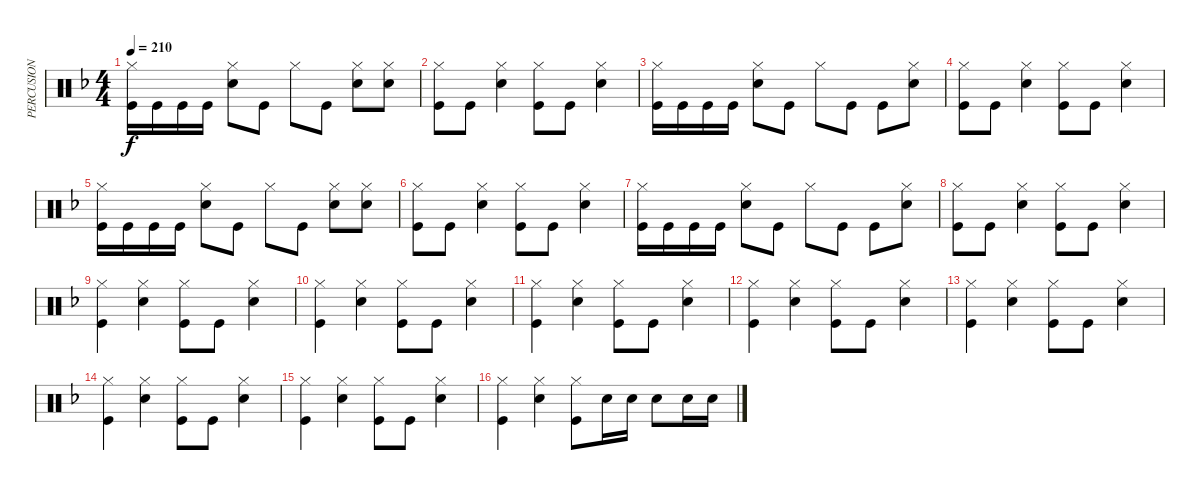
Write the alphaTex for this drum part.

\track ("PERCUSION" "PERCUSION") {instrument percussion}
\staff {score}
\articulation defaults
\ts (4 4)
\tempo 210
\clef neutral
\ks f
("Hi-Hat (closed)" "Kick (hit)").16{dy f} "Kick (hit)".16 "Kick (hit)".16 "Kick (hit)".16 ("Hi-Hat (closed)" "Snare (hit) 2").8 "Kick (hit)".8 "Hi-Hat (closed)".8 "Kick (hit)".8 ("Hi-Hat (closed)" "Snare (hit) 2").8 ("Hi-Hat (closed)" "Snare (hit) 2").8 |
("Hi-Hat (closed)" "Kick (hit)").8 "Kick (hit)".8 ("Hi-Hat (closed)" "Snare (hit) 2").4 ("Hi-Hat (closed)" "Kick (hit)").8 "Kick (hit)".8 ("Hi-Hat (closed)" "Snare (hit) 2").4 |
("Hi-Hat (closed)" "Kick (hit)").16 "Kick (hit)".16 "Kick (hit)".16 "Kick (hit)".16 ("Hi-Hat (closed)" "Snare (hit) 2").8 "Kick (hit)".8 "Hi-Hat (closed)".8 "Kick (hit)".8 "Kick (hit)".8 ("Hi-Hat (closed)" "Snare (hit) 2").8 |
("Hi-Hat (closed)" "Kick (hit)").8 "Kick (hit)".8 ("Hi-Hat (closed)" "Snare (hit) 2").4 ("Hi-Hat (closed)" "Kick (hit)").8 "Kick (hit)".8 ("Hi-Hat (closed)" "Snare (hit) 2").4 |
("Hi-Hat (closed)" "Kick (hit)").16 "Kick (hit)".16 "Kick (hit)".16 "Kick (hit)".16 ("Hi-Hat (closed)" "Snare (hit) 2").8 "Kick (hit)".8 "Hi-Hat (closed)".8 "Kick (hit)".8 ("Hi-Hat (closed)" "Snare (hit) 2").8 ("Hi-Hat (closed)" "Snare (hit) 2").8 |
("Hi-Hat (closed)" "Kick (hit)").8 "Kick (hit)".8 ("Hi-Hat (closed)" "Snare (hit) 2").4 ("Hi-Hat (closed)" "Kick (hit)").8 "Kick (hit)".8 ("Hi-Hat (closed)" "Snare (hit) 2").4 |
("Hi-Hat (closed)" "Kick (hit)").16 "Kick (hit)".16 "Kick (hit)".16 "Kick (hit)".16 ("Hi-Hat (closed)" "Snare (hit) 2").8 "Kick (hit)".8 "Hi-Hat (closed)".8 "Kick (hit)".8 "Kick (hit)".8 ("Hi-Hat (closed)" "Snare (hit) 2").8 |
("Hi-Hat (closed)" "Kick (hit)").8 "Kick (hit)".8 ("Hi-Hat (closed)" "Snare (hit) 2").4 ("Hi-Hat (closed)" "Kick (hit)").8 "Kick (hit)".8 ("Hi-Hat (closed)" "Snare (hit) 2").4 |
("Hi-Hat (closed)" "Kick (hit)").4 ("Hi-Hat (closed)" "Snare (hit) 2").4 ("Hi-Hat (closed)" "Kick (hit)").8 "Kick (hit)".8 ("Hi-Hat (closed)" "Snare (hit) 2").4 |
("Hi-Hat (closed)" "Kick (hit)").4 ("Hi-Hat (closed)" "Snare (hit) 2").4 ("Hi-Hat (closed)" "Kick (hit)").8 "Kick (hit)".8 ("Hi-Hat (closed)" "Snare (hit) 2").4 |
("Hi-Hat (closed)" "Kick (hit)").4 ("Hi-Hat (closed)" "Snare (hit) 2").4 ("Hi-Hat (closed)" "Kick (hit)").8 "Kick (hit)".8 ("Hi-Hat (closed)" "Snare (hit) 2").4 |
("Hi-Hat (closed)" "Kick (hit)").4 ("Hi-Hat (closed)" "Snare (hit) 2").4 ("Hi-Hat (closed)" "Kick (hit)").8 "Kick (hit)".8 ("Hi-Hat (closed)" "Snare (hit) 2").4 |
("Hi-Hat (closed)" "Kick (hit)").4 ("Hi-Hat (closed)" "Snare (hit) 2").4 ("Hi-Hat (closed)" "Kick (hit)").8 "Kick (hit)".8 ("Hi-Hat (closed)" "Snare (hit) 2").4 |
("Hi-Hat (closed)" "Kick (hit)").4 ("Hi-Hat (closed)" "Snare (hit) 2").4 ("Hi-Hat (closed)" "Kick (hit)").8 "Kick (hit)".8 ("Hi-Hat (closed)" "Snare (hit) 2").4 |
("Hi-Hat (closed)" "Kick (hit)").4 ("Hi-Hat (closed)" "Snare (hit) 2").4 ("Hi-Hat (closed)" "Kick (hit)").8 "Kick (hit)".8 ("Hi-Hat (closed)" "Snare (hit) 2").4 |
("Hi-Hat (closed)" "Kick (hit)").4 ("Hi-Hat (closed)" "Snare (hit) 2").4 ("Hi-Hat (closed)" "Kick (hit)").8 "Snare (hit) 2".16 "Snare (hit) 2".16 "Snare (hit) 2".8 "Snare (hit) 2".16 "Snare (hit) 2".16
